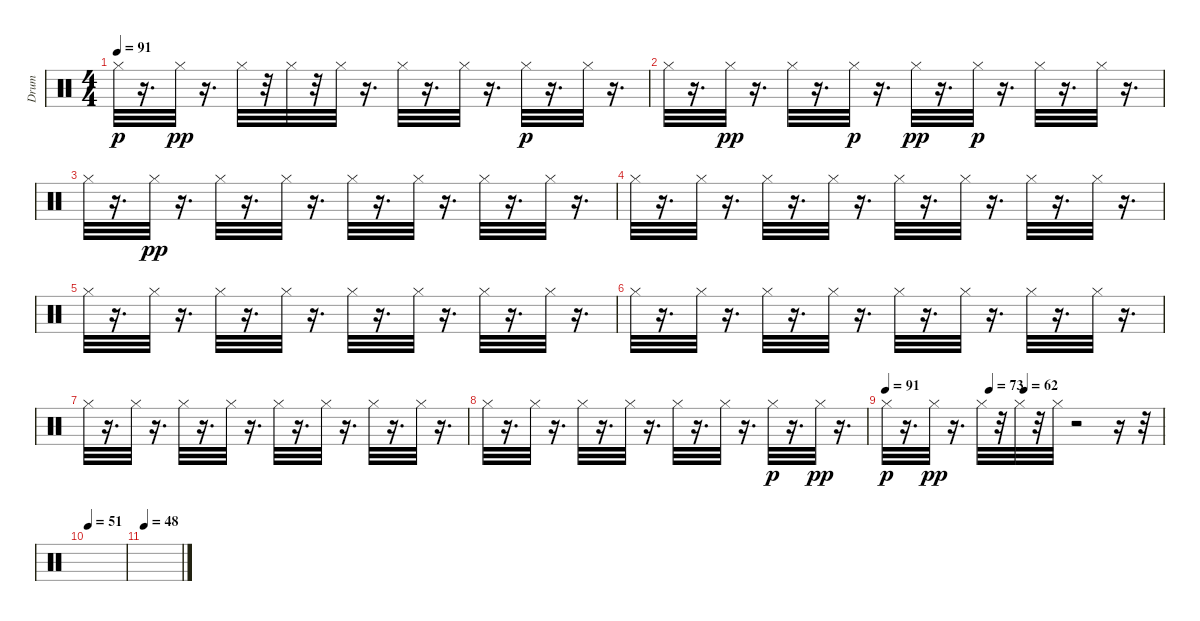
\track ("Drum" "Drum") {instrument percussion}
\staff {score}
\articulation defaults
\ts (4 4)
\tempo 91
\clef neutral
\ks c "Hi-Hat (closed)".32{dy p}
r.16{d} "Hi-Hat (closed)".32{dy pp} r.16{d} "Hi-Hat (closed)".32 r.32 "Hi-Hat (closed)".32 r.32 "Hi-Hat (closed)".32 r.16{d} "Hi-Hat (closed)".32 r.16{d} "Hi-Hat (closed)".32 r.16{d} "Hi-Hat (closed)".32{dy p} r.16{d} "Hi-Hat (closed)".32 r.16{d} |
"Hi-Hat (closed)".32 r.16{d} "Hi-Hat (closed)".32{dy pp} r.16{d} "Hi-Hat (closed)".32 r.16{d} "Hi-Hat (closed)".32{dy p} r.16{d} "Hi-Hat (closed)".32{dy pp} r.16{d} "Hi-Hat (closed)".32{dy p} r.16{d} "Hi-Hat (closed)".32 r.16{d} "Hi-Hat (closed)".32 r.16{d} |
"Hi-Hat (closed)".32 r.16{d} "Hi-Hat (closed)".32{dy pp} r.16{d} "Hi-Hat (closed)".32 r.16{d} "Hi-Hat (closed)".32 r.16{d} "Hi-Hat (closed)".32 r.16{d} "Hi-Hat (closed)".32 r.16{d} "Hi-Hat (closed)".32 r.16{d} "Hi-Hat (closed)".32 r.16{d} |
"Hi-Hat (closed)".32 r.16{d} "Hi-Hat (closed)".32 r.16{d} "Hi-Hat (closed)".32 r.16{d} "Hi-Hat (closed)".32 r.16{d} "Hi-Hat (closed)".32 r.16{d} "Hi-Hat (closed)".32 r.16{d} "Hi-Hat (closed)".32 r.16{d} "Hi-Hat (closed)".32 r.16{d} |
"Hi-Hat (closed)".32 r.16{d} "Hi-Hat (closed)".32 r.16{d} "Hi-Hat (closed)".32 r.16{d} "Hi-Hat (closed)".32 r.16{d} "Hi-Hat (closed)".32 r.16{d} "Hi-Hat (closed)".32 r.16{d} "Hi-Hat (closed)".32 r.16{d} "Hi-Hat (closed)".32 r.16{d} |
"Hi-Hat (closed)".32 r.16{d} "Hi-Hat (closed)".32 r.16{d} "Hi-Hat (closed)".32 r.16{d} "Hi-Hat (closed)".32 r.16{d} "Hi-Hat (closed)".32 r.16{d} "Hi-Hat (closed)".32 r.16{d} "Hi-Hat (closed)".32 r.16{d} "Hi-Hat (closed)".32 r.16{d} |
"Hi-Hat (closed)".32 r.16{d} "Hi-Hat (closed)".32 r.16{d} "Hi-Hat (closed)".32 r.16{d} "Hi-Hat (closed)".32 r.16{d} "Hi-Hat (closed)".32 r.16{d} "Hi-Hat (closed)".32 r.16{d} "Hi-Hat (closed)".32 r.16{d} "Hi-Hat (closed)".32 r.16{d} |
"Hi-Hat (closed)".32 r.16{d} "Hi-Hat (closed)".32 r.16{d} "Hi-Hat (closed)".32 r.16{d} "Hi-Hat (closed)".32 r.16{d} "Hi-Hat (closed)".32 r.16{d} "Hi-Hat (closed)".32 r.16{d} "Hi-Hat (closed)".32{dy p} r.16{d} "Hi-Hat (closed)".32{dy pp} r.16{d} |
\tempo 91
\tempo (73 0.375)
\tempo (62 0.5)
"Hi-Hat (closed)".32{dy p} r.16{d} "Hi-Hat (closed)".32{dy pp} r.16{d} "Hi-Hat (closed)".32 r.32 "Hi-Hat (closed)".32 r.32 "Hi-Hat (closed)".32 r.2 r.16 r.32 |
\tempo 51
|
\tempo 48
